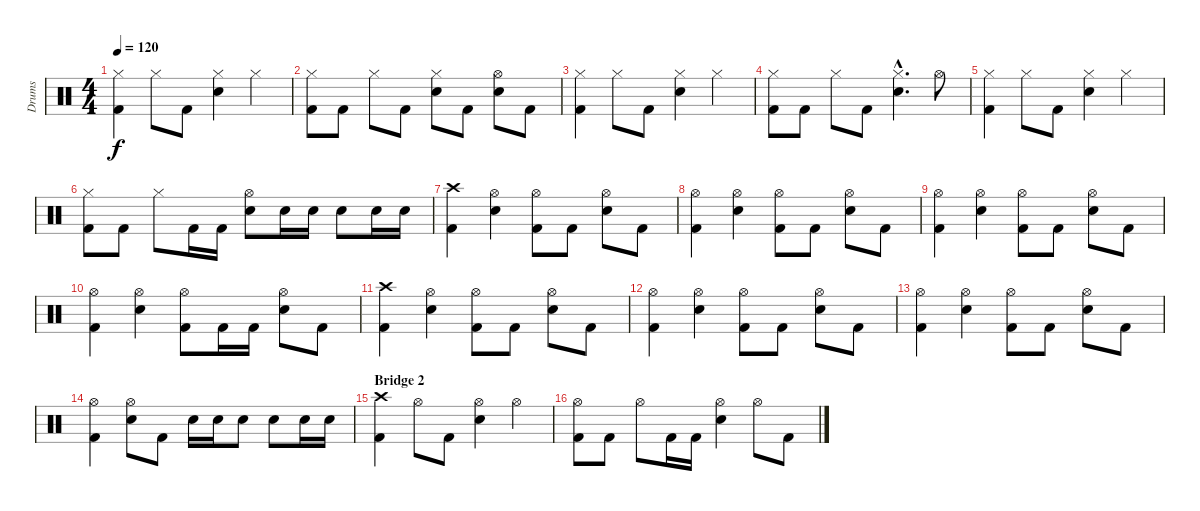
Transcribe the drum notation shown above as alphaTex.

\track ("Drums" "Drums") {instrument percussion}
\staff {score}
\articulation defaults
\ts (4 4)
\tempo 120
\clef neutral
\ks c
("Hi-Hat (closed)" "Kick (hit) 2").4{dy f} "Hi-Hat (closed)".8 "Kick (hit) 2".8 ("Hi-Hat (closed)" "Snare (hit) 2").4 "Hi-Hat (closed)".4 |
("Hi-Hat (closed)" "Kick (hit) 2").8 "Kick (hit) 2".8 "Hi-Hat (closed)".8 "Kick (hit) 2".8 ("Hi-Hat (closed)" "Snare (hit) 2").8 "Kick (hit) 2".8 ("Hi-Hat (open)" "Snare (hit) 2").8 "Kick (hit) 2".8 |
("Hi-Hat (closed)" "Kick (hit) 2").4 "Hi-Hat (closed)".8 "Kick (hit) 2".8 ("Hi-Hat (closed)" "Snare (hit) 2").4 "Hi-Hat (closed)".4 |
("Hi-Hat (closed)" "Kick (hit) 2").8 "Kick (hit) 2".8 "Hi-Hat (closed)".8 "Kick (hit) 2".8 ("Hi-Hat (closed)"{hac} "Snare (hit) 2"{hac}).4{d} "Hi-Hat (open)".8 |
("Hi-Hat (closed)" "Kick (hit) 2").4 "Hi-Hat (closed)".8 "Kick (hit) 2".8 ("Hi-Hat (closed)" "Snare (hit) 2").4 "Hi-Hat (closed)".4 |
("Hi-Hat (closed)" "Kick (hit) 2").8 "Kick (hit) 2".8 "Hi-Hat (closed)".8 "Kick (hit) 2".16 "Kick (hit) 2".16 ("Hi-Hat (open)" "Snare (hit) 2").8 "Snare (hit) 2".16 "Snare (hit) 2".16 "Snare (hit) 2".8 "Snare (hit) 2".16 "Snare (hit) 2".16 |
("Crash high (hit)" "Kick (hit) 2").4 ("Hi-Hat (open)" "Snare (hit) 2").4 ("Hi-Hat (open)" "Kick (hit) 2").8 "Kick (hit) 2".8 ("Hi-Hat (open)" "Snare (hit) 2").8 "Kick (hit) 2".8 |
("Hi-Hat (open)" "Kick (hit) 2").4 ("Hi-Hat (open)" "Snare (hit) 2").4 ("Hi-Hat (open)" "Kick (hit) 2").8 "Kick (hit) 2".8 ("Hi-Hat (open)" "Snare (hit) 2").8 "Kick (hit) 2".8 |
("Hi-Hat (open)" "Kick (hit) 2").4 ("Hi-Hat (open)" "Snare (hit) 2").4 ("Hi-Hat (open)" "Kick (hit) 2").8 "Kick (hit) 2".8 ("Hi-Hat (open)" "Snare (hit) 2").8 "Kick (hit) 2".8 |
("Hi-Hat (open)" "Kick (hit) 2").4 ("Hi-Hat (open)" "Snare (hit) 2").4 ("Hi-Hat (open)" "Kick (hit) 2").8 "Kick (hit) 2".16 "Kick (hit) 2".16 ("Hi-Hat (open)" "Snare (hit) 2").8 "Kick (hit) 2".8 |
("Crash high (hit)" "Kick (hit) 2").4 ("Hi-Hat (open)" "Snare (hit) 2").4 ("Hi-Hat (open)" "Kick (hit) 2").8 "Kick (hit) 2".8 ("Hi-Hat (open)" "Snare (hit) 2").8 "Kick (hit) 2".8 |
("Hi-Hat (open)" "Kick (hit) 2").4 ("Hi-Hat (open)" "Snare (hit) 2").4 ("Hi-Hat (open)" "Kick (hit) 2").8 "Kick (hit) 2".8 ("Hi-Hat (open)" "Snare (hit) 2").8 "Kick (hit) 2".8 |
("Hi-Hat (open)" "Kick (hit) 2").4 ("Hi-Hat (open)" "Snare (hit) 2").4 ("Hi-Hat (open)" "Kick (hit) 2").8 "Kick (hit) 2".8 ("Hi-Hat (open)" "Snare (hit) 2").8 "Kick (hit) 2".8 |
("Hi-Hat (open)" "Kick (hit) 2").4 ("Hi-Hat (open)" "Snare (hit) 2").8 "Kick (hit) 2".8 "Snare (hit) 2".16 "Snare (hit) 2".16 "Snare (hit) 2".8 "Snare (hit) 2".8 "Snare (hit) 2".16 "Snare (hit) 2".16 |
\section ("" "Bridge 2")
("Crash high (hit)" "Kick (hit) 2").4 "Hi-Hat (open)".8 "Kick (hit) 2".8 ("Hi-Hat (open)" "Snare (hit) 2").4 "Hi-Hat (open)".4 |
("Hi-Hat (open)" "Kick (hit) 2").8 "Kick (hit) 2".8 "Hi-Hat (open)".8 "Kick (hit) 2".16 "Kick (hit) 2".16 ("Hi-Hat (open)" "Snare (hit) 2").4 "Hi-Hat (open)".8 "Kick (hit) 2".8
